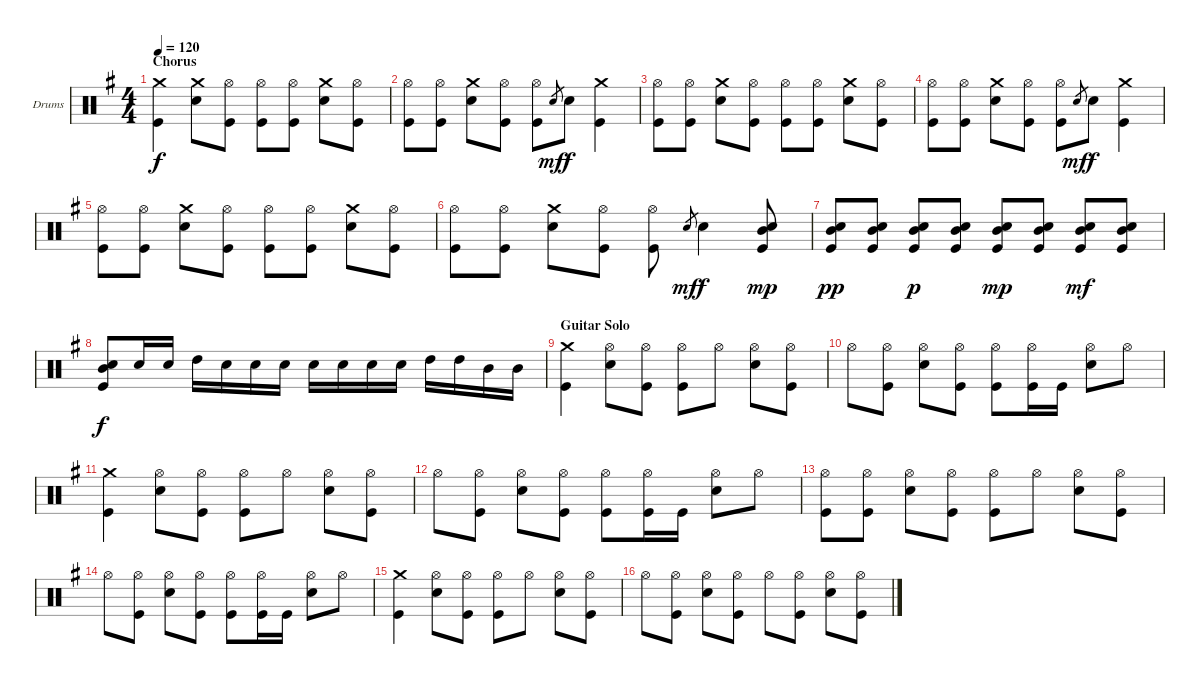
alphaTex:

\defaultSystemsLayout 4
\bracketExtendMode groupsimilarinstruments
\firstSystemTrackNameOrientation horizontal
\otherSystemsTrackNameOrientation horizontal
\track ("Drumkit" "Drums") {instrument percussion}
\staff {score}
\articulation defaults
\ts (4 4)
\section ("" "Chorus")
\tempo 120
\clef neutral
\scale
1.04288
\ks g
("Crash medium (hit)" "Kick (hit)").4{dy f} ("Crash medium (hit)" "Snare (hit) 2").8 ("Hi-Hat (open)" "Kick (hit)").8 ("Hi-Hat (open)" "Kick (hit)").8 ("Hi-Hat (open)" "Kick (hit)").8 ("Crash medium (hit)" "Snare (hit) 2").8 ("Hi-Hat (open)" "Kick (hit)").8 |
\scale
0.957125 ("Hi-Hat (open)" "Kick (hit)").8 ("Hi-Hat (open)" "Kick (hit)").8 ("Crash medium (hit)" "Snare (hit) 2").8 ("Hi-Hat (open)" "Kick (hit)").8 ("Hi-Hat (open)" "Kick (hit)").8 "Snare (hit) 2".8{gr dy mf} "Snare (hit) 2".8{dy f} ("Crash medium (hit)" "Kick (hit)").4 |
\scale
1.04288 ("Hi-Hat (open)" "Kick (hit)").8 ("Hi-Hat (open)" "Kick (hit)").8 ("Crash medium (hit)" "Snare (hit) 2").8 ("Hi-Hat (open)" "Kick (hit)").8 ("Hi-Hat (open)" "Kick (hit)").8 ("Hi-Hat (open)" "Kick (hit)").8 ("Crash medium (hit)" "Snare (hit) 2").8 ("Hi-Hat (open)" "Kick (hit)").8 |
\scale
0.957125 ("Hi-Hat (open)" "Kick (hit)").8 ("Hi-Hat (open)" "Kick (hit)").8 ("Crash medium (hit)" "Snare (hit) 2").8 ("Hi-Hat (open)" "Kick (hit)").8 ("Hi-Hat (open)" "Kick (hit)").8 "Snare (hit) 2".8{gr dy mf} "Snare (hit) 2".8{dy f} ("Crash medium (hit)" "Kick (hit)").4 |
\scale
1.04288 ("Hi-Hat (open)" "Kick (hit)").8 ("Hi-Hat (open)" "Kick (hit)").8 ("Crash medium (hit)" "Snare (hit) 2").8 ("Hi-Hat (open)" "Kick (hit)").8 ("Hi-Hat (open)" "Kick (hit)").8 ("Hi-Hat (open)" "Kick (hit)").8 ("Crash medium (hit)" "Snare (hit) 2").8 ("Hi-Hat (open)" "Kick (hit)").8 |
\scale
0.957125 ("Hi-Hat (open)" "Kick (hit)").8 ("Hi-Hat (open)" "Kick (hit)").8 ("Crash medium (hit)" "Snare (hit) 2").8 ("Hi-Hat (open)" "Kick (hit)").8 ("Hi-Hat (open)" "Kick (hit)").8 "Snare (hit) 2".8{gr dy mf} "Snare (hit) 2".4{dy f} ("Mid Tom (hit)" "Snare (hit) 2" "Kick (hit)").8{dy mp} |
\scale
1.04288 ("Mid Tom (hit)" "Snare (hit) 2" "Kick (hit)").8{dy pp} ("Mid Tom (hit)" "Snare (hit) 2" "Kick (hit)").8 ("Mid Tom (hit)" "Snare (hit) 2" "Kick (hit)").8{dy p} ("Mid Tom (hit)" "Snare (hit) 2" "Kick (hit)").8 ("Mid Tom (hit)" "Snare (hit) 2" "Kick (hit)").8{dy mp} ("Mid Tom (hit)" "Snare (hit) 2" "Kick (hit)").8 ("Mid Tom (hit)" "Snare (hit) 2" "Kick (hit)").8{dy mf} ("Mid Tom (hit)" "Snare (hit) 2" "Kick (hit)").8 |
\scale
0.957125 ("Mid Tom (hit)" "Snare (hit) 2" "Kick (hit)").8{dy f} "Snare (hit) 2".16 "Snare (hit) 2".16 "High Tom (hit)".16 "Snare (hit) 2".16 "Snare (hit) 2".16 "Snare (hit) 2".16 "Snare (hit) 2".16 "Snare (hit) 2".16 "Snare (hit) 2".16 "Snare (hit) 2".16 "High Tom (hit)".16 "High Tom (hit)".16 "Mid Tom (hit)".16 "Mid Tom (hit)".16 |
\section ("" "Guitar Solo")
\scale
1.04288 ("Crash medium (hit)" "Kick (hit)").4 ("Hi-Hat (open)" "Snare (hit) 2").8 ("Hi-Hat (open)" "Kick (hit)").8 ("Hi-Hat (open)" "Kick (hit)").8 "Hi-Hat (open)".8 ("Hi-Hat (open)" "Snare (hit) 2").8 ("Hi-Hat (open)" "Kick (hit)").8 |
\scale
0.957125 "Hi-Hat (open)".8 ("Hi-Hat (open)" "Kick (hit)").8 ("Hi-Hat (open)" "Snare (hit) 2").8 ("Hi-Hat (open)" "Kick (hit)").8 ("Hi-Hat (open)" "Kick (hit)").8 ("Hi-Hat (open)" "Kick (hit)").16 "Kick (hit)".16 ("Hi-Hat (open)" "Snare (hit) 2").8 "Hi-Hat (open)".8 |
\scale
1.04288 ("Crash medium (hit)" "Kick (hit)").4 ("Hi-Hat (open)" "Snare (hit) 2").8 ("Hi-Hat (open)" "Kick (hit)").8 ("Hi-Hat (open)" "Kick (hit)").8 "Hi-Hat (open)".8 ("Hi-Hat (open)" "Snare (hit) 2").8 ("Hi-Hat (open)" "Kick (hit)").8 |
\scale
0.957125 "Hi-Hat (open)".8 ("Hi-Hat (open)" "Kick (hit)").8 ("Hi-Hat (open)" "Snare (hit) 2").8 ("Hi-Hat (open)" "Kick (hit)").8 ("Hi-Hat (open)" "Kick (hit)").8 ("Hi-Hat (open)" "Kick (hit)").16 "Kick (hit)".16 ("Hi-Hat (open)" "Snare (hit) 2").8 "Hi-Hat (open)".8 |
\scale
1.04288 ("Hi-Hat (open)" "Kick (hit)").8 ("Hi-Hat (open)" "Kick (hit)").8 ("Hi-Hat (open)" "Snare (hit) 2").8 ("Hi-Hat (open)" "Kick (hit)").8 ("Hi-Hat (open)" "Kick (hit)").8 "Hi-Hat (open)".8 ("Hi-Hat (open)" "Snare (hit) 2").8 ("Hi-Hat (open)" "Kick (hit)").8 |
\scale
0.957125 "Hi-Hat (open)".8 ("Hi-Hat (open)" "Kick (hit)").8 ("Hi-Hat (open)" "Snare (hit) 2").8 ("Hi-Hat (open)" "Kick (hit)").8 ("Hi-Hat (open)" "Kick (hit)").8 ("Hi-Hat (open)" "Kick (hit)").16 "Kick (hit)".16 ("Hi-Hat (open)" "Snare (hit) 2").8 "Hi-Hat (open)".8 |
\scale
1.04288 ("Crash medium (hit)" "Kick (hit)").4 ("Hi-Hat (open)" "Snare (hit) 2").8 ("Hi-Hat (open)" "Kick (hit)").8 ("Hi-Hat (open)" "Kick (hit)").8 "Hi-Hat (open)".8 ("Hi-Hat (open)" "Snare (hit) 2").8 ("Hi-Hat (open)" "Kick (hit)").8 |
\scale
0.957125 "Hi-Hat (open)".8 ("Hi-Hat (open)" "Kick (hit)").8 ("Hi-Hat (open)" "Snare (hit) 2").8 ("Hi-Hat (open)" "Kick (hit)").8 "Hi-Hat (open)".8 ("Hi-Hat (open)" "Kick (hit)").8 ("Hi-Hat (open)" "Snare (hit) 2").8 ("Hi-Hat (open)" "Kick (hit)").8
